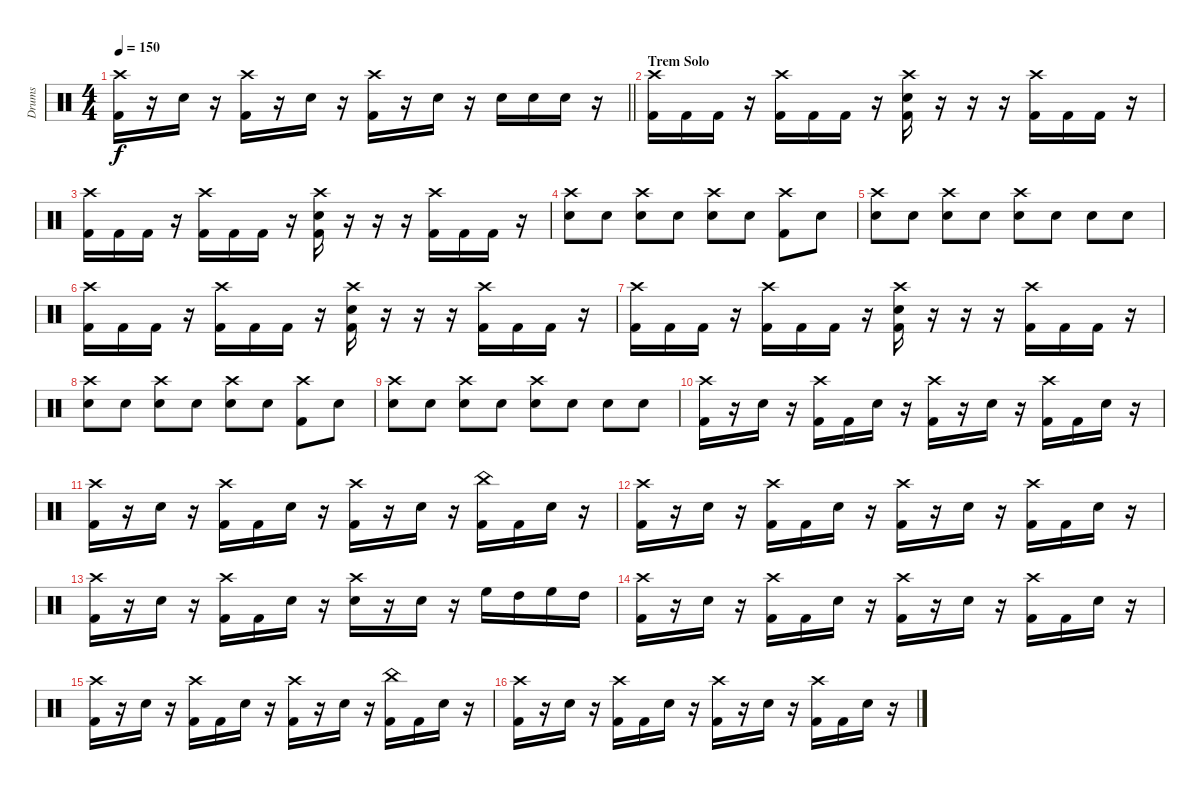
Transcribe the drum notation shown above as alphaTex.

\track ("Drums" "Drums") {instrument percussion}
\staff {score}
\articulation defaults
\ts (4 4)
\tempo 150
\clef neutral
\barLineRight lightlight
\ks c
("Crash high (hit)" "Kick (hit) 2").16{dy f} r.16 "Snare (hit) 2".16 r.16 ("Crash high (hit)" "Kick (hit) 2").16 r.16 "Snare (hit) 2".16 r.16 ("Crash high (hit)" "Kick (hit) 2").16 r.16 "Snare (hit) 2".16 r.16 "Snare (hit) 2".16 "Snare (hit) 2".16 "Snare (hit) 2".16 r.16 |
\section ("" "Trem Solo")
("Crash high (hit)" "Kick (hit) 2").16 "Kick (hit) 2".16 "Kick (hit) 2".16 r.16 ("Crash high (hit)" "Kick (hit) 2").16 "Kick (hit) 2".16 "Kick (hit) 2".16 r.16 ("Crash high (hit)" "Snare (hit) 2" "Kick (hit) 2").16 r.16 r.16 r.16 ("Crash high (hit)" "Kick (hit) 2").16 "Kick (hit) 2".16 "Kick (hit) 2".16 r.16 |
("Crash high (hit)" "Kick (hit) 2").16 "Kick (hit) 2".16 "Kick (hit) 2".16 r.16 ("Crash high (hit)" "Kick (hit) 2").16 "Kick (hit) 2".16 "Kick (hit) 2".16 r.16 ("Crash high (hit)" "Snare (hit) 2" "Kick (hit) 2").16 r.16 r.16 r.16 ("Crash high (hit)" "Kick (hit) 2").16 "Kick (hit) 2".16 "Kick (hit) 2".16 r.16 |
("Crash high (hit)" "Snare (hit) 2").8 "Snare (hit) 2".8 ("Crash high (hit)" "Snare (hit) 2").8 "Snare (hit) 2".8 ("Crash high (hit)" "Snare (hit) 2").8 "Snare (hit) 2".8 ("Crash high (hit)" "Kick (hit) 2").8 "Snare (hit) 2".8 |
("Crash high (hit)" "Snare (hit) 2").8 "Snare (hit) 2".8 ("Crash high (hit)" "Snare (hit) 2").8 "Snare (hit) 2".8 ("Crash high (hit)" "Snare (hit) 2").8 "Snare (hit) 2".8 "Snare (hit) 2".8 "Snare (hit) 2".8 |
("Crash high (hit)" "Kick (hit) 2").16 "Kick (hit) 2".16 "Kick (hit) 2".16 r.16 ("Crash high (hit)" "Kick (hit) 2").16 "Kick (hit) 2".16 "Kick (hit) 2".16 r.16 ("Crash high (hit)" "Snare (hit) 2" "Kick (hit) 2").16 r.16 r.16 r.16 ("Crash high (hit)" "Kick (hit) 2").16 "Kick (hit) 2".16 "Kick (hit) 2".16 r.16 |
("Crash high (hit)" "Kick (hit) 2").16 "Kick (hit) 2".16 "Kick (hit) 2".16 r.16 ("Crash high (hit)" "Kick (hit) 2").16 "Kick (hit) 2".16 "Kick (hit) 2".16 r.16 ("Crash high (hit)" "Snare (hit) 2" "Kick (hit) 2").16 r.16 r.16 r.16 ("Crash high (hit)" "Kick (hit) 2").16 "Kick (hit) 2".16 "Kick (hit) 2".16 r.16 |
("Crash high (hit)" "Snare (hit) 2").8 "Snare (hit) 2".8 ("Crash high (hit)" "Snare (hit) 2").8 "Snare (hit) 2".8 ("Crash high (hit)" "Snare (hit) 2").8 "Snare (hit) 2".8 ("Crash high (hit)" "Kick (hit) 2").8 "Snare (hit) 2".8 |
("Crash high (hit)" "Snare (hit) 2").8 "Snare (hit) 2".8 ("Crash high (hit)" "Snare (hit) 2").8 "Snare (hit) 2".8 ("Crash high (hit)" "Snare (hit) 2").8 "Snare (hit) 2".8 "Snare (hit) 2".8 "Snare (hit) 2".8 |
("Crash high (hit)" "Kick (hit) 2").16 r.16 "Snare (hit) 2".16 r.16 ("Crash high (hit)" "Kick (hit) 2").16 "Kick (hit) 2".16 "Snare (hit) 2".16 r.16 ("Crash high (hit)" "Kick (hit) 2").16 r.16 "Snare (hit) 2".16 r.16 ("Crash high (hit)" "Kick (hit) 2").16 "Kick (hit) 2".16 "Snare (hit) 2".16 r.16 |
("Crash high (hit)" "Kick (hit) 2").16 r.16 "Snare (hit) 2".16 r.16 ("Crash high (hit)" "Kick (hit) 2").16 "Kick (hit) 2".16 "Snare (hit) 2".16 r.16 ("Crash high (hit)" "Kick (hit) 2").16 r.16 "Snare (hit) 2".16 r.16 ("China (hit)" "Kick (hit) 2").16 "Kick (hit) 2".16 "Snare (hit) 2".16 r.16 |
("Crash high (hit)" "Kick (hit) 2").16 r.16 "Snare (hit) 2".16 r.16 ("Crash high (hit)" "Kick (hit) 2").16 "Kick (hit) 2".16 "Snare (hit) 2".16 r.16 ("Crash high (hit)" "Kick (hit) 2").16 r.16 "Snare (hit) 2".16 r.16 ("Crash high (hit)" "Kick (hit) 2").16 "Kick (hit) 2".16 "Snare (hit) 2".16 r.16 |
("Crash high (hit)" "Kick (hit) 2").16 r.16 "Snare (hit) 2".16 r.16 ("Crash high (hit)" "Kick (hit) 2").16 "Kick (hit) 2".16 "Snare (hit) 2".16 r.16 ("Crash high (hit)" "Snare (hit) 2").16 r.16 "Snare (hit) 2".16 r.16 "High Floor Tom (hit)".16 "High Tom (hit)".16 "High Floor Tom (hit)".16 "High Tom (hit)".16 |
("Crash high (hit)" "Kick (hit) 2").16 r.16 "Snare (hit) 2".16 r.16 ("Crash high (hit)" "Kick (hit) 2").16 "Kick (hit) 2".16 "Snare (hit) 2".16 r.16 ("Crash high (hit)" "Kick (hit) 2").16 r.16 "Snare (hit) 2".16 r.16 ("Crash high (hit)" "Kick (hit) 2").16 "Kick (hit) 2".16 "Snare (hit) 2".16 r.16 |
("Crash high (hit)" "Kick (hit) 2").16 r.16 "Snare (hit) 2".16 r.16 ("Crash high (hit)" "Kick (hit) 2").16 "Kick (hit) 2".16 "Snare (hit) 2".16 r.16 ("Crash high (hit)" "Kick (hit) 2").16 r.16 "Snare (hit) 2".16 r.16 ("China (hit)" "Kick (hit) 2").16 "Kick (hit) 2".16 "Snare (hit) 2".16 r.16 |
("Crash high (hit)" "Kick (hit) 2").16 r.16 "Snare (hit) 2".16 r.16 ("Crash high (hit)" "Kick (hit) 2").16 "Kick (hit) 2".16 "Snare (hit) 2".16 r.16 ("Crash high (hit)" "Kick (hit) 2").16 r.16 "Snare (hit) 2".16 r.16 ("Crash high (hit)" "Kick (hit) 2").16 "Kick (hit) 2".16 "Snare (hit) 2".16 r.16
